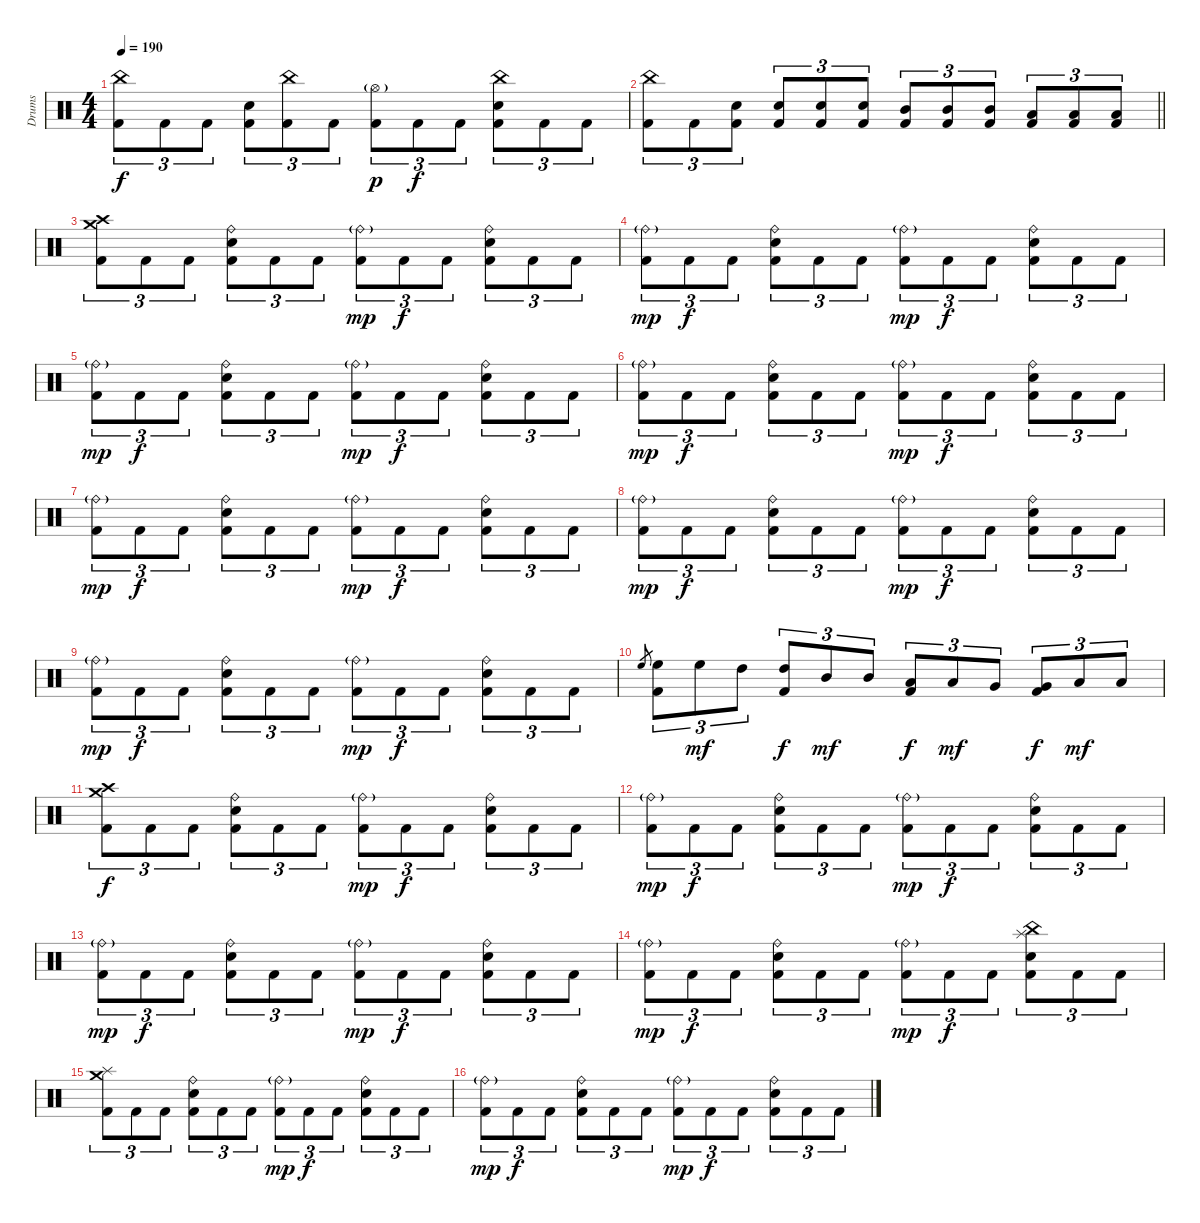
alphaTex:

\track ("Drums" "Drums") {instrument percussion}
\staff {score}
\articulation defaults
\ts (4 4)
\tempo 190
\clef neutral
\ks c
("China (hit)" "Kick (hit) 2").8{tu (3 2) dy f} "Kick (hit) 2".8{tu (3 2)} "Kick (hit) 2".8{tu (3 2)} ("Electric Snare (hit)" "Kick (hit) 2").8{tu (3 2)} ("China (hit)" "Kick (hit) 2").8{tu (3 2)} "Kick (hit) 2".8{tu (3 2)} ("Hi-Hat (open)"{g} "Kick (hit) 2").8{tu (3 2) dy p} "Kick (hit) 2".8{tu (3 2) dy f} "Kick (hit) 2".8{tu (3 2)} ("China (hit)" "Electric Snare (hit)" "Kick (hit) 2").8{tu (3 2)} "Kick (hit) 2".8{tu (3 2)} "Kick (hit) 2".8{tu (3 2)} |
\barLineRight lightlight
("China (hit)" "Kick (hit) 2").8{tu (3 2)} "Kick (hit) 2".8{tu (3 2)} ("Electric Snare (hit)" "Kick (hit) 2").8{tu (3 2)} ("Electric Snare (hit)" "Kick (hit) 2").8{tu (3 2)} ("Electric Snare (hit)" "Kick (hit) 2").8{tu (3 2)} ("Electric Snare (hit)" "Kick (hit) 2").8{tu (3 2)} ("Mid Tom (hit)" "Kick (hit) 2").8{tu (3 2)} ("Mid Tom (hit)" "Kick (hit) 2").8{tu (3 2)} ("Mid Tom (hit)" "Kick (hit) 2").8{tu (3 2)} ("Low Tom (hit)" "Kick (hit) 2").8{tu (3 2)} ("Low Tom (hit)" "Kick (hit) 2").8{tu (3 2)} ("Low Tom (hit)" "Kick (hit) 2").8{tu (3 2)} |
("Crash high (hit)" "Crash medium (hit)" "Kick (hit) 2").8{tu (3 2)} "Kick (hit) 2".8{tu (3 2)} "Kick (hit) 2".8{tu (3 2)} ("Ride (bell)" "Electric Snare (hit)" "Kick (hit) 2").8{tu (3 2)} "Kick (hit) 2".8{tu (3 2)} "Kick (hit) 2".8{tu (3 2)} ("Ride (bell)"{g} "Kick (hit) 2").8{tu (3 2) dy mp} "Kick (hit) 2".8{tu (3 2) dy f} "Kick (hit) 2".8{tu (3 2)} ("Ride (bell)" "Electric Snare (hit)" "Kick (hit) 2").8{tu (3 2)} "Kick (hit) 2".8{tu (3 2)} "Kick (hit) 2".8{tu (3 2)} |
("Ride (bell)"{g} "Kick (hit) 2").8{tu (3 2) dy mp} "Kick (hit) 2".8{tu (3 2) dy f} "Kick (hit) 2".8{tu (3 2)} ("Ride (bell)" "Electric Snare (hit)" "Kick (hit) 2").8{tu (3 2)} "Kick (hit) 2".8{tu (3 2)} "Kick (hit) 2".8{tu (3 2)} ("Ride (bell)"{g} "Kick (hit) 2").8{tu (3 2) dy mp} "Kick (hit) 2".8{tu (3 2) dy f} "Kick (hit) 2".8{tu (3 2)} ("Ride (bell)" "Electric Snare (hit)" "Kick (hit) 2").8{tu (3 2)} "Kick (hit) 2".8{tu (3 2)} "Kick (hit) 2".8{tu (3 2)} |
("Ride (bell)"{g} "Kick (hit) 2").8{tu (3 2) dy mp} "Kick (hit) 2".8{tu (3 2) dy f} "Kick (hit) 2".8{tu (3 2)} ("Ride (bell)" "Electric Snare (hit)" "Kick (hit) 2").8{tu (3 2)} "Kick (hit) 2".8{tu (3 2)} "Kick (hit) 2".8{tu (3 2)} ("Ride (bell)"{g} "Kick (hit) 2").8{tu (3 2) dy mp} "Kick (hit) 2".8{tu (3 2) dy f} "Kick (hit) 2".8{tu (3 2)} ("Ride (bell)" "Electric Snare (hit)" "Kick (hit) 2").8{tu (3 2)} "Kick (hit) 2".8{tu (3 2)} "Kick (hit) 2".8{tu (3 2)} |
("Ride (bell)"{g} "Kick (hit) 2").8{tu (3 2) dy mp} "Kick (hit) 2".8{tu (3 2) dy f} "Kick (hit) 2".8{tu (3 2)} ("Ride (bell)" "Electric Snare (hit)" "Kick (hit) 2").8{tu (3 2)} "Kick (hit) 2".8{tu (3 2)} "Kick (hit) 2".8{tu (3 2)} ("Ride (bell)"{g} "Kick (hit) 2").8{tu (3 2) dy mp} "Kick (hit) 2".8{tu (3 2) dy f} "Kick (hit) 2".8{tu (3 2)} ("Ride (bell)" "Electric Snare (hit)" "Kick (hit) 2").8{tu (3 2)} "Kick (hit) 2".8{tu (3 2)} "Kick (hit) 2".8{tu (3 2)} |
("Ride (bell)"{g} "Kick (hit) 2").8{tu (3 2) dy mp} "Kick (hit) 2".8{tu (3 2) dy f} "Kick (hit) 2".8{tu (3 2)} ("Ride (bell)" "Electric Snare (hit)" "Kick (hit) 2").8{tu (3 2)} "Kick (hit) 2".8{tu (3 2)} "Kick (hit) 2".8{tu (3 2)} ("Ride (bell)"{g} "Kick (hit) 2").8{tu (3 2) dy mp} "Kick (hit) 2".8{tu (3 2) dy f} "Kick (hit) 2".8{tu (3 2)} ("Ride (bell)" "Electric Snare (hit)" "Kick (hit) 2").8{tu (3 2)} "Kick (hit) 2".8{tu (3 2)} "Kick (hit) 2".8{tu (3 2)} |
("Ride (bell)"{g} "Kick (hit) 2").8{tu (3 2) dy mp} "Kick (hit) 2".8{tu (3 2) dy f} "Kick (hit) 2".8{tu (3 2)} ("Ride (bell)" "Electric Snare (hit)" "Kick (hit) 2").8{tu (3 2)} "Kick (hit) 2".8{tu (3 2)} "Kick (hit) 2".8{tu (3 2)} ("Ride (bell)"{g} "Kick (hit) 2").8{tu (3 2) dy mp} "Kick (hit) 2".8{tu (3 2) dy f} "Kick (hit) 2".8{tu (3 2)} ("Ride (bell)" "Electric Snare (hit)" "Kick (hit) 2").8{tu (3 2)} "Kick (hit) 2".8{tu (3 2)} "Kick (hit) 2".8{tu (3 2)} |
("Ride (bell)"{g} "Kick (hit) 2").8{tu (3 2) dy mp} "Kick (hit) 2".8{tu (3 2) dy f} "Kick (hit) 2".8{tu (3 2)} ("Ride (bell)" "Electric Snare (hit)" "Kick (hit) 2").8{tu (3 2)} "Kick (hit) 2".8{tu (3 2)} "Kick (hit) 2".8{tu (3 2)} ("Ride (bell)"{g} "Kick (hit) 2").8{tu (3 2) dy mp} "Kick (hit) 2".8{tu (3 2) dy f} "Kick (hit) 2".8{tu (3 2)} ("Ride (bell)" "Electric Snare (hit)" "Kick (hit) 2").8{tu (3 2)} "Kick (hit) 2".8{tu (3 2)} "Kick (hit) 2".8{tu (3 2)} |
"High Floor Tom (hit)".8{gr} ("High Floor Tom (hit)" "Kick (hit) 2").8{tu (3 2)} "High Floor Tom (hit)".8{tu (3 2) dy mf} "High Tom (hit)".8{tu (3 2)} ("High Tom (hit)" "Kick (hit) 2").8{tu (3 2) dy f} "Mid Tom (hit)".8{tu (3 2) dy mf} "Mid Tom (hit)".8{tu (3 2)} ("Low Tom (hit)" "Kick (hit) 2").8{tu (3 2) dy f} "Low Tom (hit)".8{tu (3 2) dy mf} "Very Low Tom (hit)".8{tu (3 2)} ("Very Low Tom (hit)" "Kick (hit) 2").8{tu (3 2) dy f} "Low Floor Tom (hit)".8{tu (3 2) dy mf} "Low Floor Tom (hit)".8{tu (3 2)} |
("Crash high (hit)" "Crash medium (hit)" "Kick (hit) 2").8{tu (3 2) dy f} "Kick (hit) 2".8{tu (3 2)} "Kick (hit) 2".8{tu (3 2)} ("Ride (bell)" "Electric Snare (hit)" "Kick (hit) 2").8{tu (3 2)} "Kick (hit) 2".8{tu (3 2)} "Kick (hit) 2".8{tu (3 2)} ("Ride (bell)"{g} "Kick (hit) 2").8{tu (3 2) dy mp} "Kick (hit) 2".8{tu (3 2) dy f} "Kick (hit) 2".8{tu (3 2)} ("Ride (bell)" "Electric Snare (hit)" "Kick (hit) 2").8{tu (3 2)} "Kick (hit) 2".8{tu (3 2)} "Kick (hit) 2".8{tu (3 2)} |
("Ride (bell)"{g} "Kick (hit) 2").8{tu (3 2) dy mp} "Kick (hit) 2".8{tu (3 2) dy f} "Kick (hit) 2".8{tu (3 2)} ("Ride (bell)" "Electric Snare (hit)" "Kick (hit) 2").8{tu (3 2)} "Kick (hit) 2".8{tu (3 2)} "Kick (hit) 2".8{tu (3 2)} ("Ride (bell)"{g} "Kick (hit) 2").8{tu (3 2) dy mp} "Kick (hit) 2".8{tu (3 2) dy f} "Kick (hit) 2".8{tu (3 2)} ("Ride (bell)" "Electric Snare (hit)" "Kick (hit) 2").8{tu (3 2)} "Kick (hit) 2".8{tu (3 2)} "Kick (hit) 2".8{tu (3 2)} |
("Ride (bell)"{g} "Kick (hit) 2").8{tu (3 2) dy mp} "Kick (hit) 2".8{tu (3 2) dy f} "Kick (hit) 2".8{tu (3 2)} ("Ride (bell)" "Electric Snare (hit)" "Kick (hit) 2").8{tu (3 2)} "Kick (hit) 2".8{tu (3 2)} "Kick (hit) 2".8{tu (3 2)} ("Ride (bell)"{g} "Kick (hit) 2").8{tu (3 2) dy mp} "Kick (hit) 2".8{tu (3 2) dy f} "Kick (hit) 2".8{tu (3 2)} ("Ride (bell)" "Electric Snare (hit)" "Kick (hit) 2").8{tu (3 2)} "Kick (hit) 2".8{tu (3 2)} "Kick (hit) 2".8{tu (3 2)} |
("Ride (bell)"{g} "Kick (hit) 2").8{tu (3 2) dy mp} "Kick (hit) 2".8{tu (3 2) dy f} "Kick (hit) 2".8{tu (3 2)} ("Ride (bell)" "Electric Snare (hit)" "Kick (hit) 2").8{tu (3 2)} "Kick (hit) 2".8{tu (3 2)} "Kick (hit) 2".8{tu (3 2)} ("Ride (bell)"{g} "Kick (hit) 2").8{tu (3 2) dy mp} "Kick (hit) 2".8{tu (3 2) dy f} "Kick (hit) 2".8{tu (3 2)} ("Splash (hit)" "China (hit)" "Electric Snare (hit)" "Kick (hit) 2").8{tu (3 2)} "Kick (hit) 2".8{tu (3 2)} "Kick (hit) 2".8{tu (3 2)} |
("Crash medium (hit)" "Splash (hit)" "Kick (hit) 2").8{tu (3 2)} "Kick (hit) 2".8{tu (3 2)} "Kick (hit) 2".8{tu (3 2)} ("Ride (bell)" "Electric Snare (hit)" "Kick (hit) 2").8{tu (3 2)} "Kick (hit) 2".8{tu (3 2)} "Kick (hit) 2".8{tu (3 2)} ("Ride (bell)"{g} "Kick (hit) 2").8{tu (3 2) dy mp} "Kick (hit) 2".8{tu (3 2) dy f} "Kick (hit) 2".8{tu (3 2)} ("Ride (bell)" "Electric Snare (hit)" "Kick (hit) 2").8{tu (3 2)} "Kick (hit) 2".8{tu (3 2)} "Kick (hit) 2".8{tu (3 2)} |
("Ride (bell)"{g} "Kick (hit) 2").8{tu (3 2) dy mp} "Kick (hit) 2".8{tu (3 2) dy f} "Kick (hit) 2".8{tu (3 2)} ("Ride (bell)" "Electric Snare (hit)" "Kick (hit) 2").8{tu (3 2)} "Kick (hit) 2".8{tu (3 2)} "Kick (hit) 2".8{tu (3 2)} ("Ride (bell)"{g} "Kick (hit) 2").8{tu (3 2) dy mp} "Kick (hit) 2".8{tu (3 2) dy f} "Kick (hit) 2".8{tu (3 2)} ("Ride (bell)" "Electric Snare (hit)" "Kick (hit) 2").8{tu (3 2)} "Kick (hit) 2".8{tu (3 2)} "Kick (hit) 2".8{tu (3 2)}
